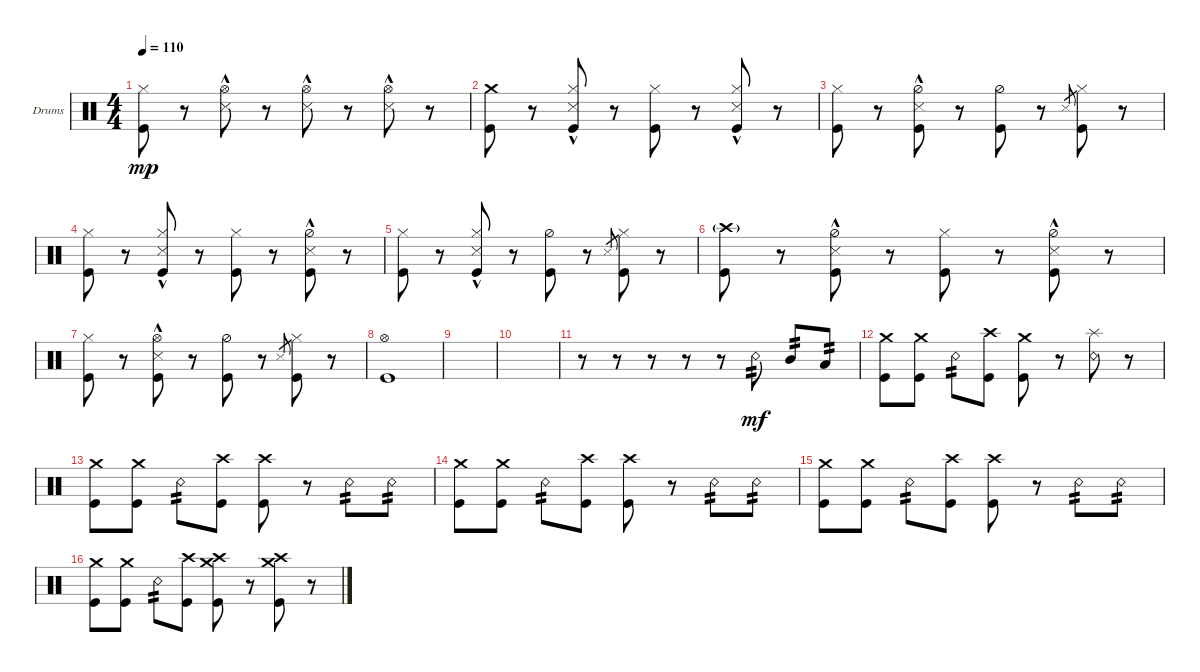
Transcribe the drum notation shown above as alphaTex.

\defaultSystemsLayout 4
\bracketExtendMode groupsimilarinstruments
\firstSystemTrackNameOrientation horizontal
\otherSystemsTrackNameOrientation horizontal
\track ("Drumkit" "Drums") {instrument percussion}
\staff {score}
\articulation defaults
\ts (4 4)
\tempo 110
\clef neutral
\scale
0.333333
\ks c
("Kick (hit)" "Hi-Hat (closed)").8{dy mp} r.8 ("Snare (side stick) 3"{hac} "Hi-Hat (open)").8 r.8 ("Hi-Hat (open)" "Snare (side stick) 3"{hac}).8 r.8 ("Hi-Hat (open)" "Snare (side stick) 3"{hac}).8 r.8 |
\scale
0.333333 ("Kick (hit)" "Crash medium (hit)").8 r.8 ("Snare (side stick) 3"{hac} "Hi-Hat (closed)" "Kick (hit)").8 r.8 ("Kick (hit)" "Hi-Hat (closed)").8 r.8 ("Snare (side stick) 3"{hac} "Hi-Hat (closed)" "Kick (hit)").8 r.8 |
\scale
0.333333 ("Kick (hit)" "Hi-Hat (closed)").8 r.8 ("Snare (side stick) 3"{hac} "Hi-Hat (half)" "Kick (hit)").8 r.8 ("Kick (hit)" "Hi-Hat (half)").8 r.8 "Snare (side stick) 3".8{gr} ("Hi-Hat (closed)" "Kick (hit)").8 r.8 |
\scale
0.333333 ("Kick (hit)" "Hi-Hat (closed)").8 r.8 ("Snare (side stick) 3"{hac} "Hi-Hat (closed)" "Kick (hit)").8 r.8 ("Kick (hit)" "Hi-Hat (closed)").8 r.8 ("Snare (side stick) 3"{hac} "Hi-Hat (half)" "Kick (hit)").8 r.8 |
\scale
0.333333 ("Kick (hit)" "Hi-Hat (closed)").8 r.8 ("Snare (side stick) 3"{hac} "Hi-Hat (closed)" "Kick (hit)").8 r.8 ("Kick (hit)" "Hi-Hat (half)").8 r.8 "Snare (side stick) 3".8{gr} ("Hi-Hat (closed)" "Kick (hit)").8 r.8 |
\scale
0.333333 ("Kick (hit)" "Crash high (hit)"{g}).8 r.8 ("Snare (side stick) 3"{hac} "Hi-Hat (half)" "Kick (hit)").8 r.8 ("Kick (hit)" "Hi-Hat (closed)").8 r.8 ("Snare (side stick) 3"{hac} "Hi-Hat (half)" "Kick (hit)").8 r.8 |
\scale
0.333333 ("Kick (hit)" "Hi-Hat (closed)").8 r.8 ("Snare (side stick) 3"{hac} "Hi-Hat (open)" "Kick (hit)").8 r.8 ("Kick (hit)" "Hi-Hat (half)").8 r.8 "Snare (side stick) 3".8{gr} ("Hi-Hat (closed)" "Kick (hit)").8 r.8 |
\scale
0.333333 ("Kick (hit)" "Hi-Hat (open)").1 |
\scale
0.333333 |
\scale
0.333333 |
\scale
0.333333 r.8 r.8 r.8 r.8 r.8 "Snare (rim shot)".8{tp 2 dy mf} "Mid Tom (hit)".8{tp 2} "Low Tom (hit)".8{tp 2} |
\scale
0.333333 ("Kick (hit)" "Crash medium (hit)").8 ("Kick (hit)" "Crash medium (hit)").8 "Snare (rim shot)".8{tp 2} ("Kick (hit)" "Crash high (hit)").8 ("Kick (hit)" "Crash medium (hit)").8 r.8 ("Snare (rim shot)" "Splash (hit)").8 r.8 |
\scale
0.333333 ("Kick (hit)" "Crash medium (hit)").8 ("Kick (hit)" "Crash medium (hit)").8 "Snare (rim shot)".8{tp 2} ("Kick (hit)" "Crash high (hit)").8 ("Kick (hit)" "Crash high (hit)").8 r.8 "Snare (rim shot)".8{tp 2} "Snare (rim shot)".8{tp 2} |
\scale
0.333333 ("Kick (hit)" "Crash medium (hit)").8 ("Kick (hit)" "Crash medium (hit)").8 "Snare (rim shot)".8{tp 2} ("Kick (hit)" "Crash high (hit)").8 ("Kick (hit)" "Crash high (hit)").8 r.8 "Snare (rim shot)".8{tp 2} "Snare (rim shot)".8{tp 2} |
\scale
0.333333 ("Kick (hit)" "Crash medium (hit)").8 ("Kick (hit)" "Crash medium (hit)").8 "Snare (rim shot)".8{tp 2} ("Kick (hit)" "Crash high (hit)").8 ("Kick (hit)" "Crash high (hit)").8 r.8 "Snare (rim shot)".8{tp 2} "Snare (rim shot)".8{tp 2} |
\scale
0.333333 ("Kick (hit)" "Crash medium (hit)").8 ("Kick (hit)" "Crash medium (hit)").8 "Snare (rim shot)".8{tp 2} ("Kick (hit)" "Crash high (hit)").8 ("Kick (hit)" "Crash high (hit)" "Crash medium (hit)").8 r.8 ("Kick (hit)" "Crash high (hit)" "Crash medium (hit)").8 r.8
